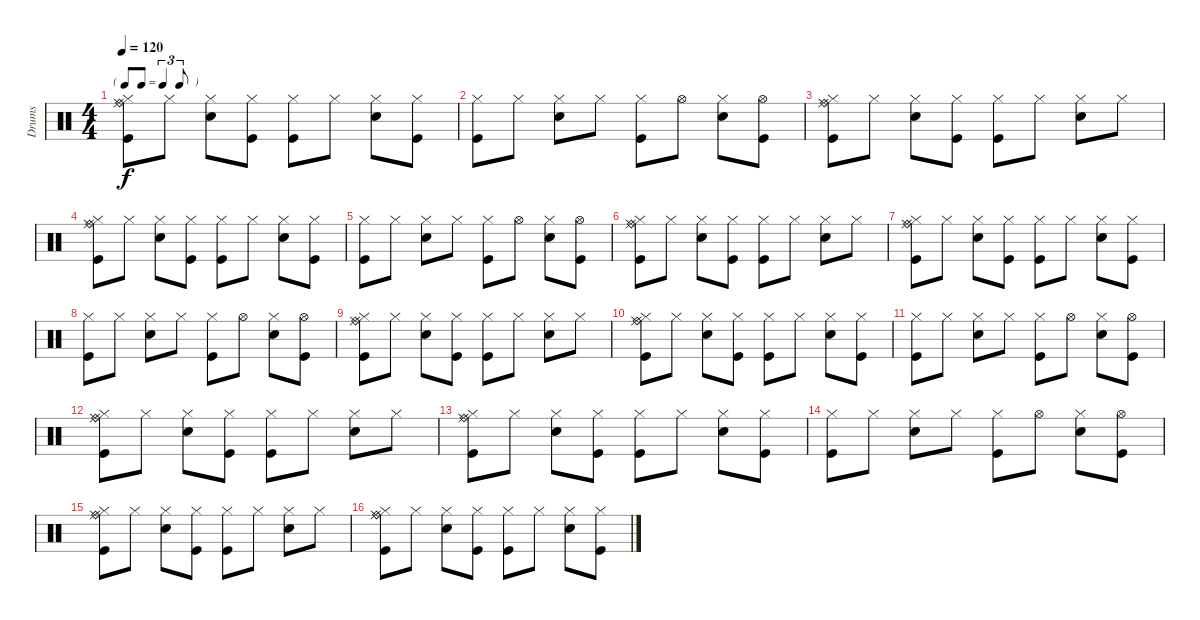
\track ("Drums" "Drums") {instrument percussion}
\staff {score}
\articulation defaults
\ts (4 4)
\tf triplet8th
\tempo 120
\clef neutral
\ks c
("Kick (hit)" "Hi-Hat (closed)" "Ride (middle)" "Ride (bell)").8{dy f} "Hi-Hat (closed)".8 ("Snare (hit) 2" "Hi-Hat (closed)").8 ("Kick (hit)" "Hi-Hat (closed)").8 ("Kick (hit)" "Hi-Hat (closed)").8 "Hi-Hat (closed)".8 ("Snare (hit) 2" "Hi-Hat (closed)").8 ("Kick (hit)" "Hi-Hat (closed)").8 |
("Kick (hit)" "Hi-Hat (closed)").8 "Hi-Hat (closed)".8 ("Snare (hit) 2" "Hi-Hat (closed)").8 "Hi-Hat (closed)".8 ("Kick (hit)" "Hi-Hat (closed)").8 "Hi-Hat (open)".8 ("Snare (hit) 2" "Hi-Hat (closed)").8 ("Kick (hit)" "Hi-Hat (open)").8 |
("Kick (hit)" "Hi-Hat (closed)" "Ride (middle)" "Ride (bell)").8 "Hi-Hat (closed)".8 ("Snare (hit) 2" "Hi-Hat (closed)").8 ("Kick (hit)" "Hi-Hat (closed)").8 ("Kick (hit)" "Hi-Hat (closed)").8 "Hi-Hat (closed)".8 ("Snare (hit) 2" "Hi-Hat (closed)").8 "Hi-Hat (closed)".8 |
("Kick (hit)" "Hi-Hat (closed)" "Ride (middle)" "Ride (bell)").8 "Hi-Hat (closed)".8 ("Snare (hit) 2" "Hi-Hat (closed)").8 ("Kick (hit)" "Hi-Hat (closed)").8 ("Kick (hit)" "Hi-Hat (closed)").8 "Hi-Hat (closed)".8 ("Snare (hit) 2" "Hi-Hat (closed)").8 ("Kick (hit)" "Hi-Hat (closed)").8 |
("Kick (hit)" "Hi-Hat (closed)").8 "Hi-Hat (closed)".8 ("Snare (hit) 2" "Hi-Hat (closed)").8 "Hi-Hat (closed)".8 ("Kick (hit)" "Hi-Hat (closed)").8 "Hi-Hat (open)".8 ("Snare (hit) 2" "Hi-Hat (closed)").8 ("Kick (hit)" "Hi-Hat (open)").8 |
("Kick (hit)" "Hi-Hat (closed)" "Ride (middle)" "Ride (bell)").8 "Hi-Hat (closed)".8 ("Snare (hit) 2" "Hi-Hat (closed)").8 ("Kick (hit)" "Hi-Hat (closed)").8 ("Kick (hit)" "Hi-Hat (closed)").8 "Hi-Hat (closed)".8 ("Snare (hit) 2" "Hi-Hat (closed)").8 "Hi-Hat (closed)".8 |
("Kick (hit)" "Hi-Hat (closed)" "Ride (middle)" "Ride (bell)").8 "Hi-Hat (closed)".8 ("Snare (hit) 2" "Hi-Hat (closed)").8 ("Kick (hit)" "Hi-Hat (closed)").8 ("Kick (hit)" "Hi-Hat (closed)").8 "Hi-Hat (closed)".8 ("Snare (hit) 2" "Hi-Hat (closed)").8 ("Kick (hit)" "Hi-Hat (closed)").8 |
("Kick (hit)" "Hi-Hat (closed)").8 "Hi-Hat (closed)".8 ("Snare (hit) 2" "Hi-Hat (closed)").8 "Hi-Hat (closed)".8 ("Kick (hit)" "Hi-Hat (closed)").8 "Hi-Hat (open)".8 ("Snare (hit) 2" "Hi-Hat (closed)").8 ("Kick (hit)" "Hi-Hat (open)").8 |
("Kick (hit)" "Hi-Hat (closed)" "Ride (middle)" "Ride (bell)").8 "Hi-Hat (closed)".8 ("Snare (hit) 2" "Hi-Hat (closed)").8 ("Kick (hit)" "Hi-Hat (closed)").8 ("Kick (hit)" "Hi-Hat (closed)").8 "Hi-Hat (closed)".8 ("Snare (hit) 2" "Hi-Hat (closed)").8 "Hi-Hat (closed)".8 |
("Kick (hit)" "Hi-Hat (closed)" "Ride (middle)" "Ride (bell)").8 "Hi-Hat (closed)".8 ("Snare (hit) 2" "Hi-Hat (closed)").8 ("Kick (hit)" "Hi-Hat (closed)").8 ("Kick (hit)" "Hi-Hat (closed)").8 "Hi-Hat (closed)".8 ("Snare (hit) 2" "Hi-Hat (closed)").8 ("Kick (hit)" "Hi-Hat (closed)").8 |
("Kick (hit)" "Hi-Hat (closed)").8 "Hi-Hat (closed)".8 ("Snare (hit) 2" "Hi-Hat (closed)").8 "Hi-Hat (closed)".8 ("Kick (hit)" "Hi-Hat (closed)").8 "Hi-Hat (open)".8 ("Snare (hit) 2" "Hi-Hat (closed)").8 ("Kick (hit)" "Hi-Hat (open)").8 |
("Kick (hit)" "Hi-Hat (closed)" "Ride (middle)" "Ride (bell)").8 "Hi-Hat (closed)".8 ("Snare (hit) 2" "Hi-Hat (closed)").8 ("Kick (hit)" "Hi-Hat (closed)").8 ("Kick (hit)" "Hi-Hat (closed)").8 "Hi-Hat (closed)".8 ("Snare (hit) 2" "Hi-Hat (closed)").8 "Hi-Hat (closed)".8 |
("Kick (hit)" "Hi-Hat (closed)" "Ride (middle)" "Ride (bell)").8 "Hi-Hat (closed)".8 ("Snare (hit) 2" "Hi-Hat (closed)").8 ("Kick (hit)" "Hi-Hat (closed)").8 ("Kick (hit)" "Hi-Hat (closed)").8 "Hi-Hat (closed)".8 ("Snare (hit) 2" "Hi-Hat (closed)").8 ("Kick (hit)" "Hi-Hat (closed)").8 |
("Kick (hit)" "Hi-Hat (closed)").8 "Hi-Hat (closed)".8 ("Snare (hit) 2" "Hi-Hat (closed)").8 "Hi-Hat (closed)".8 ("Kick (hit)" "Hi-Hat (closed)").8 "Hi-Hat (open)".8 ("Snare (hit) 2" "Hi-Hat (closed)").8 ("Kick (hit)" "Hi-Hat (open)").8 |
("Kick (hit)" "Hi-Hat (closed)" "Ride (middle)" "Ride (bell)").8 "Hi-Hat (closed)".8 ("Snare (hit) 2" "Hi-Hat (closed)").8 ("Kick (hit)" "Hi-Hat (closed)").8 ("Kick (hit)" "Hi-Hat (closed)").8 "Hi-Hat (closed)".8 ("Snare (hit) 2" "Hi-Hat (closed)").8 "Hi-Hat (closed)".8 |
("Kick (hit)" "Hi-Hat (closed)" "Ride (middle)" "Ride (bell)").8 "Hi-Hat (closed)".8 ("Snare (hit) 2" "Hi-Hat (closed)").8 ("Kick (hit)" "Hi-Hat (closed)").8 ("Kick (hit)" "Hi-Hat (closed)").8 "Hi-Hat (closed)".8 ("Snare (hit) 2" "Hi-Hat (closed)").8 ("Kick (hit)" "Hi-Hat (closed)").8
